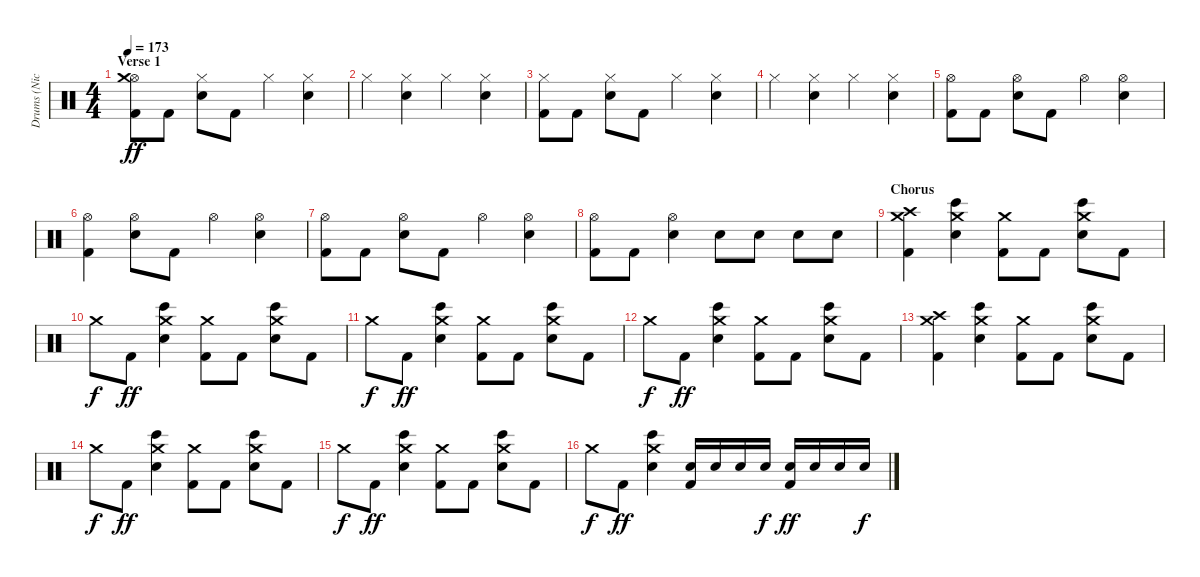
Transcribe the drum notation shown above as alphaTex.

\track ("Drums (Nick Oshiro)" "Drums (Nic") {instrument percussion}
\staff {score}
\articulation defaults
\ts (4 4)
\section ("" "Verse 1")
\tempo 173
\clef neutral
\ks c
("Hi-Hat (open)" "Crash medium (hit)" "Kick (hit) 2").8{dy ff} "Kick (hit) 2".8 ("Hi-Hat (closed)" "Snare (hit) 2").8 "Kick (hit) 2".8 "Hi-Hat (closed)".4 ("Hi-Hat (closed)" "Snare (hit) 2").4 |
"Hi-Hat (closed)".4 ("Hi-Hat (closed)" "Snare (hit) 2").4 "Hi-Hat (closed)".4 ("Hi-Hat (closed)" "Snare (hit) 2").4 |
("Hi-Hat (closed)" "Kick (hit) 2").8 "Kick (hit) 2".8 ("Hi-Hat (closed)" "Snare (hit) 2").8 "Kick (hit) 2".8 "Hi-Hat (closed)".4 ("Hi-Hat (closed)" "Snare (hit) 2").4 |
"Hi-Hat (closed)".4 ("Hi-Hat (closed)" "Snare (hit) 2").4 "Hi-Hat (closed)".4 ("Hi-Hat (closed)" "Snare (hit) 2").4 |
("Hi-Hat (open)" "Kick (hit) 2").8 "Kick (hit) 2".8 ("Hi-Hat (open)" "Snare (hit) 2").8 "Kick (hit) 2".8 "Hi-Hat (open)".4 ("Hi-Hat (open)" "Snare (hit) 2").4 |
("Hi-Hat (open)" "Kick (hit) 2").4 ("Hi-Hat (open)" "Snare (hit) 2").8 "Kick (hit) 2".8 "Hi-Hat (open)".4 ("Hi-Hat (open)" "Snare (hit) 2").4 |
("Hi-Hat (open)" "Kick (hit) 2").8 "Kick (hit) 2".8 ("Hi-Hat (open)" "Snare (hit) 2").8 "Kick (hit) 2".8 "Hi-Hat (open)".4 ("Hi-Hat (open)" "Snare (hit) 2").4 |
("Hi-Hat (open)" "Kick (hit) 2").8 "Kick (hit) 2".8 ("Hi-Hat (open)" "Snare (hit) 2").4 "Snare (hit) 2".8 "Snare (hit) 2".8 "Snare (hit) 2".8 "Snare (hit) 2".8 |
\section ("" "Chorus")
("Crash medium (hit)" "Crash high (hit)" "Kick (hit) 2").4 ("Crash medium (hit)" "Bongo High (hit)" "Snare (hit) 2").4 ("Crash medium (hit)" "Kick (hit) 2").8 "Kick (hit) 2".8 ("Crash medium (hit)" "Bongo High (hit)" "Snare (hit) 2").8 "Kick (hit) 2".8 |
"Crash medium (hit)".8{dy f} "Kick (hit) 2".8{dy ff} ("Crash medium (hit)" "Bongo High (hit)" "Snare (hit) 2").4 ("Crash medium (hit)" "Kick (hit) 2").8 "Kick (hit) 2".8 ("Crash medium (hit)" "Bongo High (hit)" "Snare (hit) 2").8 "Kick (hit) 2".8 |
"Crash medium (hit)".8{dy f} "Kick (hit) 2".8{dy ff} ("Crash medium (hit)" "Bongo High (hit)" "Snare (hit) 2").4 ("Crash medium (hit)" "Kick (hit) 2").8 "Kick (hit) 2".8 ("Crash medium (hit)" "Bongo High (hit)" "Snare (hit) 2").8 "Kick (hit) 2".8 |
"Crash medium (hit)".8{dy f} "Kick (hit) 2".8{dy ff} ("Crash medium (hit)" "Bongo High (hit)" "Snare (hit) 2").4 ("Crash medium (hit)" "Kick (hit) 2").8 "Kick (hit) 2".8 ("Crash medium (hit)" "Bongo High (hit)" "Snare (hit) 2").8 "Kick (hit) 2".8 |
("Crash medium (hit)" "Crash high (hit)" "Kick (hit) 2").4 ("Crash medium (hit)" "Bongo High (hit)" "Snare (hit) 2").4 ("Crash medium (hit)" "Kick (hit) 2").8 "Kick (hit) 2".8 ("Crash medium (hit)" "Bongo High (hit)" "Snare (hit) 2").8 "Kick (hit) 2".8 |
"Crash medium (hit)".8{dy f} "Kick (hit) 2".8{dy ff} ("Crash medium (hit)" "Bongo High (hit)" "Snare (hit) 2").4 ("Crash medium (hit)" "Kick (hit) 2").8 "Kick (hit) 2".8 ("Crash medium (hit)" "Bongo High (hit)" "Snare (hit) 2").8 "Kick (hit) 2".8 |
"Crash medium (hit)".8{dy f} "Kick (hit) 2".8{dy ff} ("Crash medium (hit)" "Bongo High (hit)" "Snare (hit) 2").4 ("Crash medium (hit)" "Kick (hit) 2").8 "Kick (hit) 2".8 ("Crash medium (hit)" "Bongo High (hit)" "Snare (hit) 2").8 "Kick (hit) 2".8 |
"Crash medium (hit)".8{dy f} "Kick (hit) 2".8{dy ff} ("Crash medium (hit)" "Bongo High (hit)" "Snare (hit) 2").4 ("Snare (hit) 2" "Kick (hit) 2").16 "Snare (hit) 2".16 "Snare (hit) 2".16 "Snare (hit) 2".16{dy f} ("Snare (hit) 2" "Kick (hit) 2").16{dy ff} "Snare (hit) 2".16 "Snare (hit) 2".16 "Snare (hit) 2".16{dy f}
